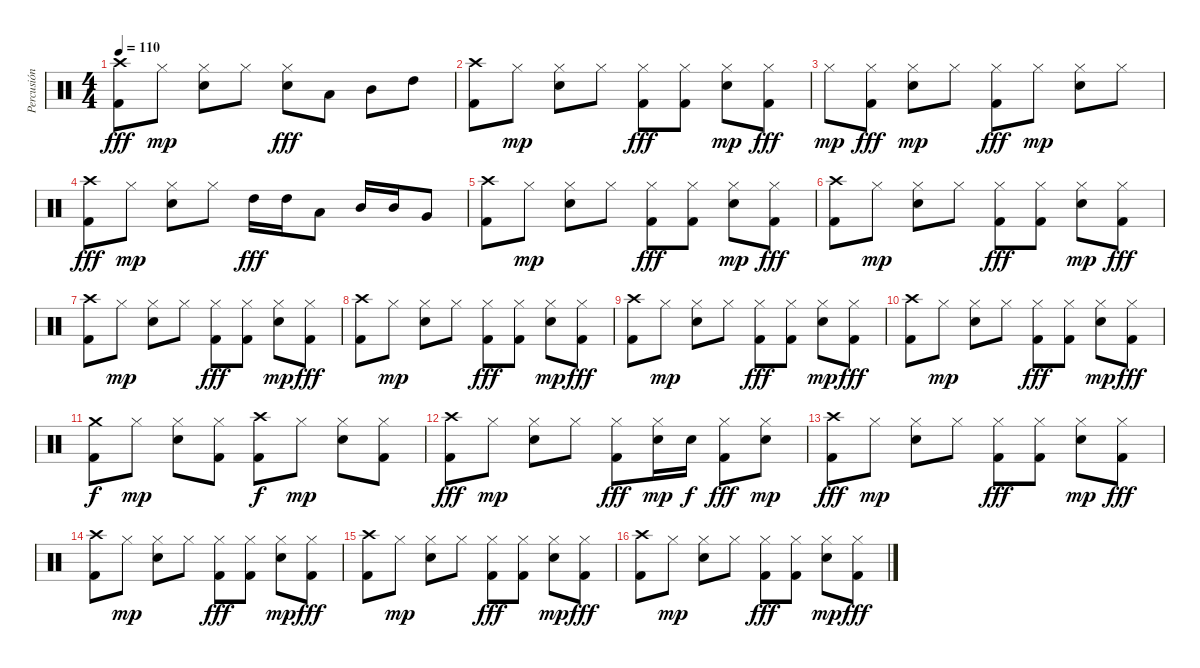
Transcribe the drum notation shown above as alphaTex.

\track ("Percusión" "Percusión") {instrument percussion}
\staff {score}
\articulation defaults
\ts (4 4)
\tempo 110
\clef neutral
\ks c
("Crash high (hit)" "Kick (hit) 2").8{dy fff} "Hi-Hat (closed)".8{dy mp} ("Hi-Hat (closed)" "Snare (hit) 2").8 "Hi-Hat (closed)".8 ("Hi-Hat (closed)" "Snare (hit) 2").8{dy fff} "Low Tom (hit)".8 "Mid Tom (hit)".8 "High Tom (hit)".8 |
("Crash high (hit)" "Kick (hit) 2").8 "Hi-Hat (closed)".8{dy mp} ("Hi-Hat (closed)" "Snare (hit) 2").8 "Hi-Hat (closed)".8 ("Hi-Hat (closed)" "Kick (hit) 2").8{dy fff} ("Hi-Hat (closed)" "Kick (hit) 2").8 ("Hi-Hat (closed)" "Snare (hit) 2").8{dy mp} ("Hi-Hat (closed)" "Kick (hit) 2").8{dy fff} |
"Hi-Hat (closed)".8{dy mp} ("Hi-Hat (closed)" "Kick (hit) 2").8{dy fff} ("Hi-Hat (closed)" "Snare (hit) 2").8{dy mp} "Hi-Hat (closed)".8 ("Hi-Hat (closed)" "Kick (hit) 2").8{dy fff} "Hi-Hat (closed)".8{dy mp} ("Hi-Hat (closed)" "Snare (hit) 2").8 "Hi-Hat (closed)".8 |
("Crash high (hit)" "Kick (hit) 2").8{dy fff} "Hi-Hat (closed)".8{dy mp} ("Hi-Hat (closed)" "Snare (hit) 2").8 "Hi-Hat (closed)".8 "High Tom (hit)".16{dy fff} "High Tom (hit)".16 "Low Tom (hit)".8 "Mid Tom (hit)".16 "Mid Tom (hit)".16 "Very Low Tom (hit)".8 |
("Crash high (hit)" "Kick (hit) 2").8 "Hi-Hat (closed)".8{dy mp} ("Hi-Hat (closed)" "Snare (hit) 2").8 "Hi-Hat (closed)".8 ("Hi-Hat (closed)" "Kick (hit) 2").8{dy fff} ("Hi-Hat (closed)" "Kick (hit) 2").8 ("Hi-Hat (closed)" "Snare (hit) 2").8{dy mp} ("Hi-Hat (closed)" "Kick (hit) 2").8{dy fff} |
("Crash high (hit)" "Kick (hit) 2").8 "Hi-Hat (closed)".8{dy mp} ("Hi-Hat (closed)" "Snare (hit) 2").8 "Hi-Hat (closed)".8 ("Hi-Hat (closed)" "Kick (hit) 2").8{dy fff} ("Hi-Hat (closed)" "Kick (hit) 2").8 ("Hi-Hat (closed)" "Snare (hit) 2").8{dy mp} ("Hi-Hat (closed)" "Kick (hit) 2").8{dy fff} |
("Crash high (hit)" "Kick (hit) 2").8 "Hi-Hat (closed)".8{dy mp} ("Hi-Hat (closed)" "Snare (hit) 2").8 "Hi-Hat (closed)".8 ("Hi-Hat (closed)" "Kick (hit) 2").8{dy fff} ("Hi-Hat (closed)" "Kick (hit) 2").8 ("Hi-Hat (closed)" "Snare (hit) 2").8{dy mp} ("Hi-Hat (closed)" "Kick (hit) 2").8{dy fff} |
("Crash high (hit)" "Kick (hit) 2").8 "Hi-Hat (closed)".8{dy mp} ("Hi-Hat (closed)" "Snare (hit) 2").8 "Hi-Hat (closed)".8 ("Hi-Hat (closed)" "Kick (hit) 2").8{dy fff} ("Hi-Hat (closed)" "Kick (hit) 2").8 ("Hi-Hat (closed)" "Snare (hit) 2").8{dy mp} ("Hi-Hat (closed)" "Kick (hit) 2").8{dy fff} |
("Crash high (hit)" "Kick (hit) 2").8 "Hi-Hat (closed)".8{dy mp} ("Hi-Hat (closed)" "Snare (hit) 2").8 "Hi-Hat (closed)".8 ("Hi-Hat (closed)" "Kick (hit) 2").8{dy fff} ("Hi-Hat (closed)" "Kick (hit) 2").8 ("Hi-Hat (closed)" "Snare (hit) 2").8{dy mp} ("Hi-Hat (closed)" "Kick (hit) 2").8{dy fff} |
("Crash high (hit)" "Kick (hit) 2").8 "Hi-Hat (closed)".8{dy mp} ("Hi-Hat (closed)" "Snare (hit) 2").8 "Hi-Hat (closed)".8 ("Hi-Hat (closed)" "Kick (hit) 2").8{dy fff} ("Hi-Hat (closed)" "Kick (hit) 2").8 ("Hi-Hat (closed)" "Snare (hit) 2").8{dy mp} ("Hi-Hat (closed)" "Kick (hit) 2").8{dy fff} |
("Crash medium (hit)" "Kick (hit) 2").8{dy f} "Hi-Hat (closed)".8{dy mp} ("Hi-Hat (closed)" "Snare (hit) 2").8 ("Hi-Hat (closed)" "Kick (hit) 2").8 ("Crash high (hit)" "Kick (hit) 2").8{dy f} "Hi-Hat (closed)".8{dy mp} ("Hi-Hat (closed)" "Snare (hit) 2").8 ("Hi-Hat (closed)" "Kick (hit) 2").8 |
("Crash high (hit)" "Kick (hit) 2").8{dy fff} "Hi-Hat (closed)".8{dy mp} ("Hi-Hat (closed)" "Snare (hit) 2").8 "Hi-Hat (closed)".8 ("Hi-Hat (closed)" "Kick (hit) 2").8{dy fff} ("Hi-Hat (closed)" "Snare (hit) 2").16{dy mp} "Snare (hit) 2".16{dy f} ("Hi-Hat (closed)" "Kick (hit) 2").8{dy fff} ("Hi-Hat (closed)" "Snare (hit) 2").8{dy mp} |
("Crash high (hit)" "Kick (hit) 2").8{dy fff} "Hi-Hat (closed)".8{dy mp} ("Hi-Hat (closed)" "Snare (hit) 2").8 "Hi-Hat (closed)".8 ("Hi-Hat (closed)" "Kick (hit) 2").8{dy fff} ("Hi-Hat (closed)" "Kick (hit) 2").8 ("Hi-Hat (closed)" "Snare (hit) 2").8{dy mp} ("Hi-Hat (closed)" "Kick (hit) 2").8{dy fff} |
("Crash high (hit)" "Kick (hit) 2").8 "Hi-Hat (closed)".8{dy mp} ("Hi-Hat (closed)" "Snare (hit) 2").8 "Hi-Hat (closed)".8 ("Hi-Hat (closed)" "Kick (hit) 2").8{dy fff} ("Hi-Hat (closed)" "Kick (hit) 2").8 ("Hi-Hat (closed)" "Snare (hit) 2").8{dy mp} ("Hi-Hat (closed)" "Kick (hit) 2").8{dy fff} |
("Crash high (hit)" "Kick (hit) 2").8 "Hi-Hat (closed)".8{dy mp} ("Hi-Hat (closed)" "Snare (hit) 2").8 "Hi-Hat (closed)".8 ("Hi-Hat (closed)" "Kick (hit) 2").8{dy fff} ("Hi-Hat (closed)" "Kick (hit) 2").8 ("Hi-Hat (closed)" "Snare (hit) 2").8{dy mp} ("Hi-Hat (closed)" "Kick (hit) 2").8{dy fff} |
("Crash high (hit)" "Kick (hit) 2").8 "Hi-Hat (closed)".8{dy mp} ("Hi-Hat (closed)" "Snare (hit) 2").8 "Hi-Hat (closed)".8 ("Hi-Hat (closed)" "Kick (hit) 2").8{dy fff} ("Hi-Hat (closed)" "Kick (hit) 2").8 ("Hi-Hat (closed)" "Snare (hit) 2").8{dy mp} ("Hi-Hat (closed)" "Kick (hit) 2").8{dy fff}
